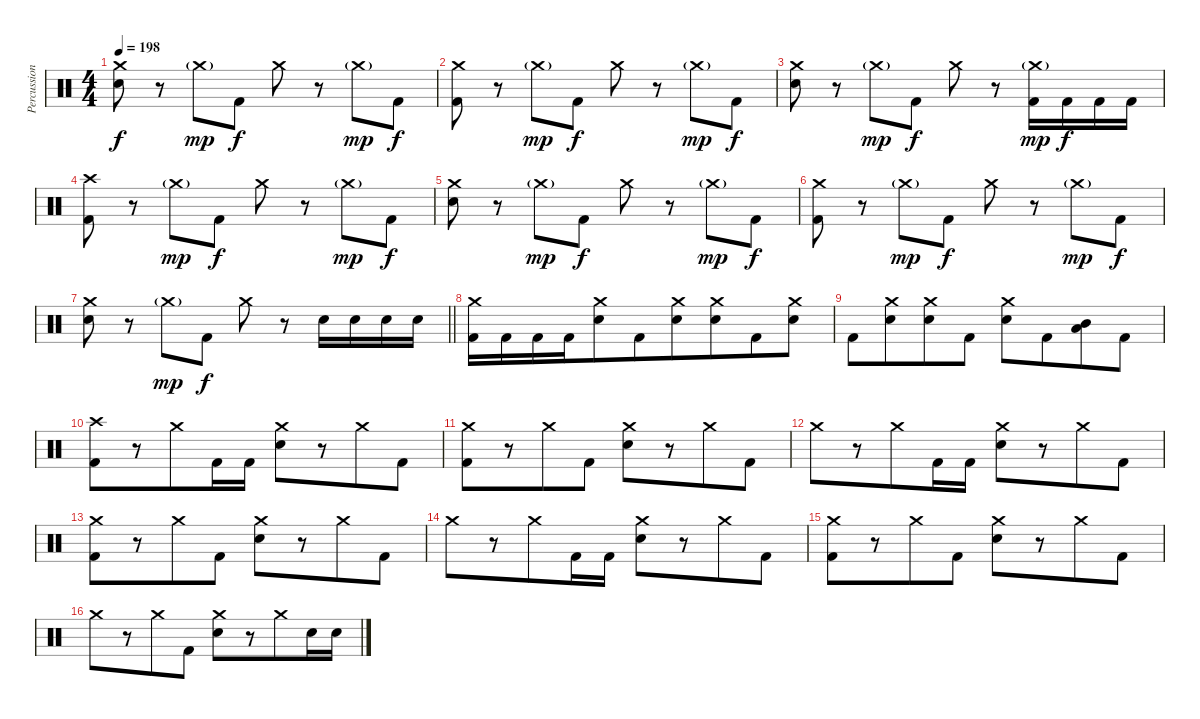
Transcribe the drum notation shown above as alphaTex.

\track ("Percussion" "Percussion") {instrument percussion}
\staff {score}
\articulation defaults
\ts (4 4)
\tempo 198
\clef neutral
\ks c
("Crash medium (hit)" "Electric Snare (hit)").8{dy f} r.8 "Crash medium (hit)"{g}.8{dy mp} "Kick (hit) 2".8{dy f} "Crash medium (hit)".8 r.8{beam merge} "Crash medium (hit)"{g}.8{dy mp} "Kick (hit) 2".8{dy f} |
("Crash medium (hit)" "Kick (hit) 2").8 r.8 "Crash medium (hit)"{g}.8{dy mp} "Kick (hit) 2".8{dy f} "Crash medium (hit)".8 r.8{beam merge} "Crash medium (hit)"{g}.8{dy mp} "Kick (hit) 2".8{dy f} |
("Crash medium (hit)" "Electric Snare (hit)").8 r.8 "Crash medium (hit)"{g}.8{dy mp} "Kick (hit) 2".8{dy f} "Crash medium (hit)".8 r.8{beam merge} ("Crash medium (hit)"{g} "Kick (hit) 2").16{dy mp} "Kick (hit) 2".16{dy f} "Kick (hit) 2".16{beam merge} "Kick (hit) 2".16 |
("Crash high (hit)" "Kick (hit) 2").8 r.8 "Crash medium (hit)"{g}.8{dy mp} "Kick (hit) 2".8{dy f} "Crash medium (hit)".8 r.8{beam merge} "Crash medium (hit)"{g}.8{dy mp} "Kick (hit) 2".8{dy f} |
("Crash medium (hit)" "Electric Snare (hit)").8 r.8 "Crash medium (hit)"{g}.8{dy mp} "Kick (hit) 2".8{dy f} "Crash medium (hit)".8 r.8{beam merge} "Crash medium (hit)"{g}.8{dy mp} "Kick (hit) 2".8{dy f} |
("Crash medium (hit)" "Kick (hit) 2").8 r.8 "Crash medium (hit)"{g}.8{dy mp} "Kick (hit) 2".8{dy f} "Crash medium (hit)".8 r.8{beam merge} "Crash medium (hit)"{g}.8{dy mp} "Kick (hit) 2".8{dy f} |
\barLineRight lightlight
("Crash medium (hit)" "Electric Snare (hit)").8 r.8 "Crash medium (hit)"{g}.8{dy mp} "Kick (hit) 2".8{dy f} "Crash medium (hit)".8 r.8{beam merge} "Electric Snare (hit)".16 "Electric Snare (hit)".16 "Electric Snare (hit)".16{beam merge} "Electric Snare (hit)".16 |
\section ("" "")
("Crash medium (hit)" "Kick (hit) 2").16 "Kick (hit) 2".16{beam merge} "Kick (hit) 2".16 "Kick (hit) 2".16{beam merge} ("Crash medium (hit)" "Electric Snare (hit)").8{beam merge} "Kick (hit) 2".8{beam merge} ("Crash medium (hit)" "Electric Snare (hit)").8{beam merge} ("Crash medium (hit)" "Electric Snare (hit)").8{beam merge} "Kick (hit) 2".8 ("Crash medium (hit)" "Electric Snare (hit)").8 |
"Kick (hit) 2".8{beam merge} ("Crash medium (hit)" "Electric Snare (hit)").8{beam merge} ("Crash medium (hit)" "Electric Snare (hit)").8{beam merge} "Kick (hit) 2".8 ("Crash medium (hit)" "Electric Snare (hit)").8 "Kick (hit) 2".8{beam merge} ("Mid Tom (hit)" "Low Tom (hit)").8 "Kick (hit) 2".8 |
("Crash high (hit)" "Kick (hit) 2").8{beam merge} r.8 "Crash medium (hit)".8 "Kick (hit) 2".16{beam merge} "Kick (hit) 2".16 ("Crash medium (hit)" "Electric Snare (hit)").8{beam merge} r.8{beam merge} "Crash medium (hit)".8 "Kick (hit) 2".8 |
("Crash medium (hit)" "Kick (hit) 2").8{beam merge} r.8 "Crash medium (hit)".8 "Kick (hit) 2".8 ("Crash medium (hit)" "Electric Snare (hit)").8{beam merge} r.8{beam merge} "Crash medium (hit)".8 "Kick (hit) 2".8 |
"Crash medium (hit)".8{beam merge} r.8 "Crash medium (hit)".8 "Kick (hit) 2".16{beam merge} "Kick (hit) 2".16 ("Crash medium (hit)" "Electric Snare (hit)").8{beam merge} r.8{beam merge} "Crash medium (hit)".8 "Kick (hit) 2".8 |
("Crash medium (hit)" "Kick (hit) 2").8{beam merge} r.8 "Crash medium (hit)".8 "Kick (hit) 2".8 ("Crash medium (hit)" "Electric Snare (hit)").8{beam merge} r.8{beam merge} "Crash medium (hit)".8 "Kick (hit) 2".8 |
"Crash medium (hit)".8{beam merge} r.8 "Crash medium (hit)".8 "Kick (hit) 2".16{beam merge} "Kick (hit) 2".16 ("Crash medium (hit)" "Electric Snare (hit)").8{beam merge} r.8{beam merge} "Crash medium (hit)".8 "Kick (hit) 2".8 |
("Crash medium (hit)" "Kick (hit) 2").8{beam merge} r.8 "Crash medium (hit)".8 "Kick (hit) 2".8 ("Crash medium (hit)" "Electric Snare (hit)").8{beam merge} r.8{beam merge} "Crash medium (hit)".8 "Kick (hit) 2".8 |
"Crash medium (hit)".8{beam merge} r.8 "Crash medium (hit)".8 "Kick (hit) 2".8 ("Crash medium (hit)" "Electric Snare (hit)").8{beam merge} r.8{beam merge} "Crash medium (hit)".8 "Electric Snare (hit)".16 "Electric Snare (hit)".16
